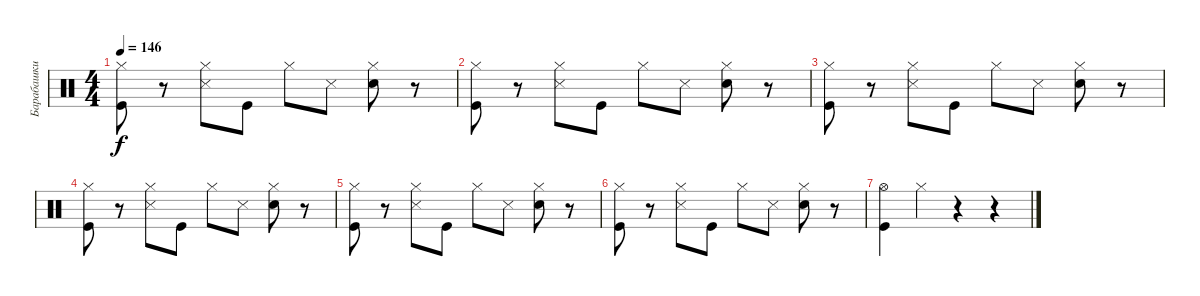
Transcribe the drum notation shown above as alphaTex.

\track ("Барабашки" "Барабашки") {instrument percussion}
\staff {score}
\articulation defaults
\ts (4 4)
\tempo 146
\clef neutral
\ks c
("Hi-Hat (closed)" "Kick (hit)").8{dy f} r.8 ("Hi-Hat (closed)" "Snare (side stick) 3").8 "Kick (hit)".8 "Hi-Hat (closed)".8 "Snare (side stick) 3".8 ("Hi-Hat (closed)" "Hand Clap (hit)").8 r.8 |
("Hi-Hat (closed)" "Kick (hit)").8 r.8 ("Hi-Hat (closed)" "Snare (side stick) 3").8 "Kick (hit)".8 "Hi-Hat (closed)".8 "Snare (side stick) 3".8 ("Hi-Hat (closed)" "Hand Clap (hit)").8 r.8 |
("Hi-Hat (closed)" "Kick (hit)").8 r.8 ("Hi-Hat (closed)" "Snare (side stick) 3").8 "Kick (hit)".8 "Hi-Hat (closed)".8 "Snare (side stick) 3".8 ("Hi-Hat (closed)" "Hand Clap (hit)").8 r.8 |
("Hi-Hat (closed)" "Kick (hit)").8 r.8 ("Hi-Hat (closed)" "Snare (side stick) 3").8 "Kick (hit)".8 "Hi-Hat (closed)".8 "Snare (side stick) 3".8 ("Hi-Hat (closed)" "Hand Clap (hit)").8 r.8 |
("Hi-Hat (closed)" "Kick (hit)").8 r.8 ("Hi-Hat (closed)" "Snare (side stick) 3").8 "Kick (hit)".8 "Hi-Hat (closed)".8 "Snare (side stick) 3".8 ("Hi-Hat (closed)" "Hand Clap (hit)").8 r.8 |
("Hi-Hat (closed)" "Kick (hit)").8 r.8 ("Hi-Hat (closed)" "Snare (side stick) 3").8 "Kick (hit)".8 "Hi-Hat (closed)".8 "Snare (side stick) 3".8 ("Hi-Hat (closed)" "Hand Clap (hit)").8 r.8 |
("Hi-Hat (open)" "Kick (hit)").4 "Hi-Hat (closed)".4 r.4 r.4
